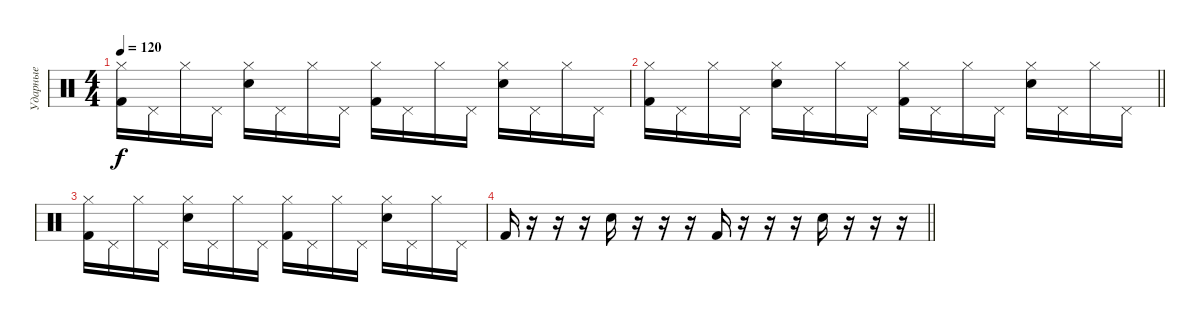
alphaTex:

\track ("Ударные" "Ударные") {instrument percussion}
\staff {score}
\articulation defaults
\ts (4 4)
\tempo 120
\clef neutral
\ks c
("Hi-Hat (closed)" "Kick (hit) 2").16{dy f} "Pedal Hi-Hat (hit)".16 "Hi-Hat (closed)".16 "Pedal Hi-Hat (hit)".16 ("Hi-Hat (closed)" "Snare (hit) 2").16 "Pedal Hi-Hat (hit)".16 "Hi-Hat (closed)".16 "Pedal Hi-Hat (hit)".16 ("Hi-Hat (closed)" "Kick (hit) 2").16 "Pedal Hi-Hat (hit)".16 "Hi-Hat (closed)".16 "Pedal Hi-Hat (hit)".16 ("Hi-Hat (closed)" "Snare (hit) 2").16 "Pedal Hi-Hat (hit)".16 "Hi-Hat (closed)".16 "Pedal Hi-Hat (hit)".16 |
\barLineRight lightlight
("Hi-Hat (closed)" "Kick (hit) 2").16 "Pedal Hi-Hat (hit)".16 "Hi-Hat (closed)".16 "Pedal Hi-Hat (hit)".16 ("Hi-Hat (closed)" "Snare (hit) 2").16 "Pedal Hi-Hat (hit)".16 "Hi-Hat (closed)".16 "Pedal Hi-Hat (hit)".16 ("Hi-Hat (closed)" "Kick (hit) 2").16 "Pedal Hi-Hat (hit)".16 "Hi-Hat (closed)".16 "Pedal Hi-Hat (hit)".16 ("Hi-Hat (closed)" "Snare (hit) 2").16 "Pedal Hi-Hat (hit)".16 "Hi-Hat (closed)".16 "Pedal Hi-Hat (hit)".16 |
("Hi-Hat (closed)" "Kick (hit) 2").16 "Pedal Hi-Hat (hit)".16 "Hi-Hat (closed)".16 "Pedal Hi-Hat (hit)".16 ("Hi-Hat (closed)" "Snare (hit) 2").16 "Pedal Hi-Hat (hit)".16 "Hi-Hat (closed)".16 "Pedal Hi-Hat (hit)".16 ("Hi-Hat (closed)" "Kick (hit) 2").16 "Pedal Hi-Hat (hit)".16 "Hi-Hat (closed)".16 "Pedal Hi-Hat (hit)".16 ("Hi-Hat (closed)" "Snare (hit) 2").16 "Pedal Hi-Hat (hit)".16 "Hi-Hat (closed)".16 "Pedal Hi-Hat (hit)".16 |
\barLineRight lightlight "Kick (hit) 2".16
r.16 r.16 r.16 "Snare (hit) 2".16 r.16 r.16 r.16 "Kick (hit) 2".16 r.16 r.16 r.16 "Snare (hit) 2".16 r.16 r.16 r.16
